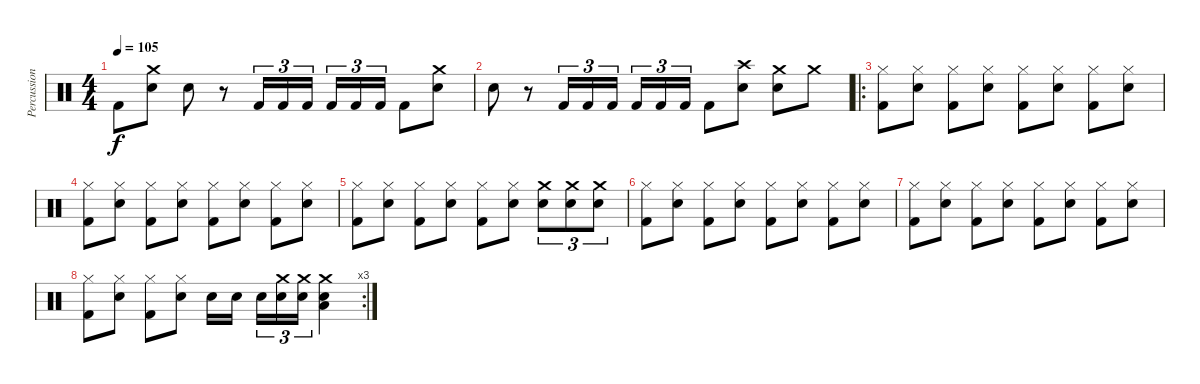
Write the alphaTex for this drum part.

\track ("Percussions" "Percussion") {instrument percussion}
\staff {score}
\articulation defaults
\ts (4 4)
\tempo 105
\clef neutral
\ks c "Kick (hit) 2".8{dy f}
("Electric Snare (hit)" "Crash medium (hit)").8 "Electric Snare (hit)".8 r.8 "Kick (hit) 2".16{tu (3 2)} "Kick (hit) 2".16{tu (3 2)} "Kick (hit) 2".16{tu (3 2)} "Kick (hit) 2".16{tu (3 2)} "Kick (hit) 2".16{tu (3 2)} "Kick (hit) 2".16{tu (3 2)} "Kick (hit) 2".8 ("Electric Snare (hit)" "Crash medium (hit)").8 |
"Electric Snare (hit)".8 r.8 "Kick (hit) 2".16{tu (3 2)} "Kick (hit) 2".16{tu (3 2)} "Kick (hit) 2".16{tu (3 2)} "Kick (hit) 2".16{tu (3 2)} "Kick (hit) 2".16{tu (3 2)} "Kick (hit) 2".16{tu (3 2)} "Kick (hit) 2".8 ("Electric Snare (hit)" "Crash high (hit)").8 ("Electric Snare (hit)" "Crash medium (hit)").8 "Crash medium (hit)".8 |
\ro
("Kick (hit) 2" "Hi-Hat (closed)").8 ("Electric Snare (hit)" "Hi-Hat (closed)").8 ("Kick (hit) 2" "Hi-Hat (closed)").8 ("Electric Snare (hit)" "Hi-Hat (closed)").8 ("Kick (hit) 2" "Hi-Hat (closed)").8 ("Electric Snare (hit)" "Hi-Hat (closed)").8 ("Kick (hit) 2" "Hi-Hat (closed)").8 ("Electric Snare (hit)" "Hi-Hat (closed)").8 |
("Kick (hit) 2" "Hi-Hat (closed)").8 ("Electric Snare (hit)" "Hi-Hat (closed)").8 ("Kick (hit) 2" "Hi-Hat (closed)").8 ("Electric Snare (hit)" "Hi-Hat (closed)").8 ("Kick (hit) 2" "Hi-Hat (closed)").8 ("Electric Snare (hit)" "Hi-Hat (closed)").8 ("Kick (hit) 2" "Hi-Hat (closed)").8 ("Electric Snare (hit)" "Hi-Hat (closed)").8 |
("Kick (hit) 2" "Hi-Hat (closed)").8 ("Electric Snare (hit)" "Hi-Hat (closed)").8 ("Kick (hit) 2" "Hi-Hat (closed)").8 ("Electric Snare (hit)" "Hi-Hat (closed)").8 ("Kick (hit) 2" "Hi-Hat (closed)").8 ("Electric Snare (hit)" "Hi-Hat (closed)").8 ("Electric Snare (hit)" "Crash medium (hit)").8{tu (3 2)} ("Electric Snare (hit)" "Crash medium (hit)").8{tu (3 2)} ("Electric Snare (hit)" "Crash medium (hit)").8{tu (3 2)} |
("Kick (hit) 2" "Hi-Hat (closed)").8 ("Electric Snare (hit)" "Hi-Hat (closed)").8 ("Kick (hit) 2" "Hi-Hat (closed)").8 ("Electric Snare (hit)" "Hi-Hat (closed)").8 ("Kick (hit) 2" "Hi-Hat (closed)").8 ("Electric Snare (hit)" "Hi-Hat (closed)").8 ("Kick (hit) 2" "Hi-Hat (closed)").8 ("Electric Snare (hit)" "Hi-Hat (closed)").8 |
("Kick (hit) 2" "Hi-Hat (closed)").8 ("Electric Snare (hit)" "Hi-Hat (closed)").8 ("Kick (hit) 2" "Hi-Hat (closed)").8 ("Electric Snare (hit)" "Hi-Hat (closed)").8 ("Kick (hit) 2" "Hi-Hat (closed)").8 ("Electric Snare (hit)" "Hi-Hat (closed)").8 ("Kick (hit) 2" "Hi-Hat (closed)").8 ("Electric Snare (hit)" "Hi-Hat (closed)").8 |
\rc 3
("Kick (hit) 2" "Hi-Hat (closed)").8 ("Electric Snare (hit)" "Hi-Hat (closed)").8 ("Kick (hit) 2" "Hi-Hat (closed)").8 ("Electric Snare (hit)" "Hi-Hat (closed)").8 "Electric Snare (hit)".16 "Electric Snare (hit)".16 "Electric Snare (hit)".16{tu (3 2)} ("Electric Snare (hit)" "Crash medium (hit)").16{tu (3 2)} ("Electric Snare (hit)" "Crash medium (hit)").16{tu (3 2)} ("Electric Snare (hit)" "Crash medium (hit)" "Low Tom (hit)").4
